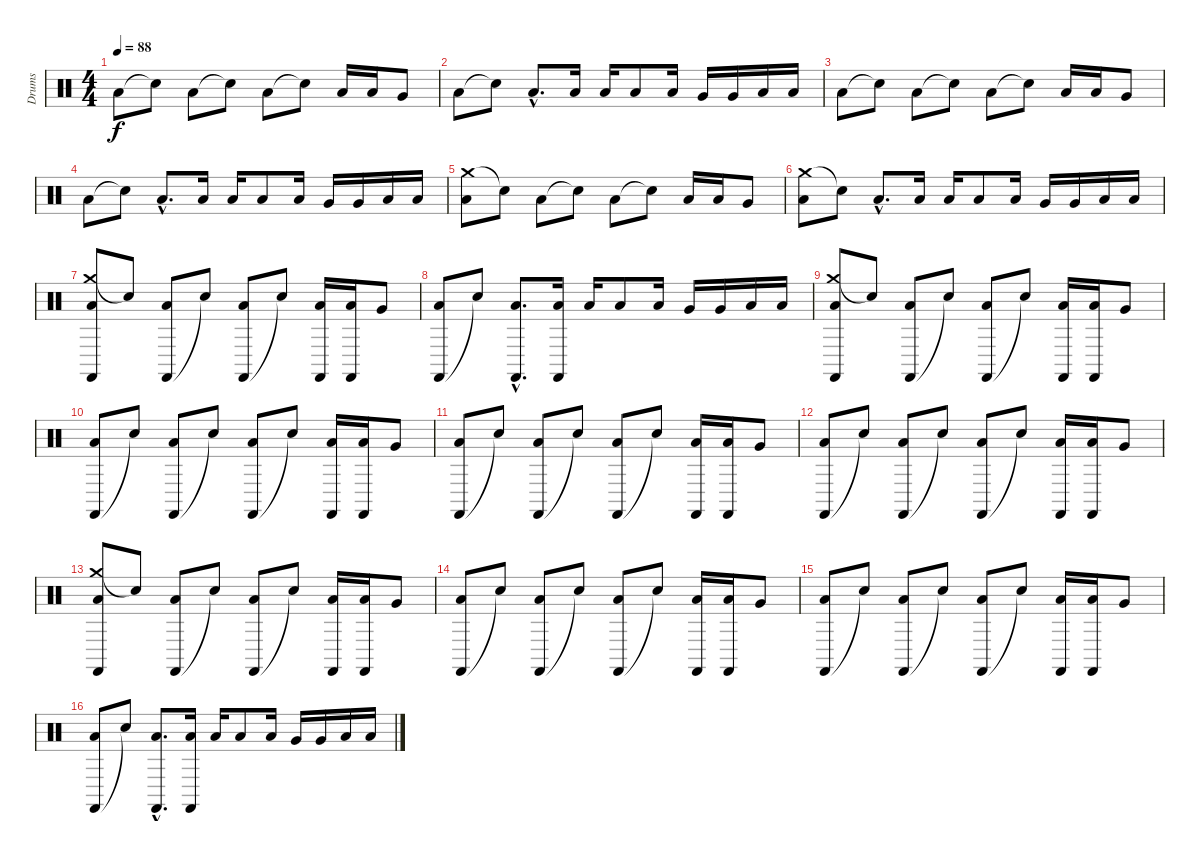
\track ("Drums" "Drums") {instrument percussion}
\staff {score}
\articulation defaults
\ts (4 4)
\tempo 88
\clef neutral
\ks c "Low Floor Tom (hit)".8{dy f} "Snare (hit)"{t}.8 "Low Floor Tom (hit)".8 "Snare (hit)"{t}.8 "Low Floor Tom (hit)".8 "Snare (hit)"{t}.8 "Low Floor Tom (hit)".16 "Low Floor Tom (hit)".16 "Very Low Tom (hit)".8
|
"Low Floor Tom (hit)".8 "Snare (hit)"{t}.8 "Low Floor Tom (hit)"{hac}.8{d} "Low Floor Tom (hit)".16 "Low Tom (hit)".16 "Low Tom (hit)".8 "Low Tom (hit)".16 "Very Low Tom (hit)".16 "Very Low Tom (hit)".16 "Low Floor Tom (hit)".16 "Low Floor Tom (hit)".16 |
"Low Floor Tom (hit)".8 "Snare (hit)"{t}.8 "Low Floor Tom (hit)".8 "Snare (hit)"{t}.8 "Low Floor Tom (hit)".8 "Snare (hit)"{t}.8 "Low Floor Tom (hit)".16 "Low Floor Tom (hit)".16 "Very Low Tom (hit)".8 |
"Low Floor Tom (hit)".8 "Snare (hit)"{t}.8 "Low Floor Tom (hit)"{hac}.8{d} "Low Floor Tom (hit)".16 "Low Tom (hit)".16 "Low Tom (hit)".8 "Low Tom (hit)".16 "Very Low Tom (hit)".16 "Very Low Tom (hit)".16 "Low Floor Tom (hit)".16 "Low Floor Tom (hit)".16 |
("Crash medium (hit)" "Low Floor Tom (hit)").8 "Snare (hit)"{t}.8 "Low Floor Tom (hit)".8 "Snare (hit)"{t}.8 "Low Floor Tom (hit)".8 "Snare (hit)"{t}.8 "Low Floor Tom (hit)".16 "Low Floor Tom (hit)".16 "Very Low Tom (hit)".8 |
("Crash medium (hit)" "Low Floor Tom (hit)").8 "Snare (hit)"{t}.8 "Low Floor Tom (hit)"{hac}.8{d} "Low Floor Tom (hit)".16 "Low Tom (hit)".16 "Low Tom (hit)".8 "Low Tom (hit)".16 "Very Low Tom (hit)".16 "Very Low Tom (hit)".16 "Low Floor Tom (hit)".16 "Low Floor Tom (hit)".16 |
("Crash medium (hit)" "Castanets (hit)" "Low Floor Tom (hit)").8 "Snare (hit)"{t}.8 ("Castanets (hit)" "Low Floor Tom (hit)").8 "Snare (hit)"{t}.8 ("Castanets (hit)" "Low Floor Tom (hit)").8 "Snare (hit)"{t}.8 ("Castanets (hit)" "Low Floor Tom (hit)").16 ("Castanets (hit)" "Low Floor Tom (hit)").16 "Very Low Tom (hit)".8 |
("Castanets (hit)" "Low Floor Tom (hit)").8 "Snare (hit)"{t}.8 ("Castanets (hit)"{hac} "Low Floor Tom (hit)"{hac}).8{d} ("Castanets (hit)" "Low Floor Tom (hit)").16 "Low Tom (hit)".16 "Low Tom (hit)".8 "Low Tom (hit)".16 "Very Low Tom (hit)".16 "Very Low Tom (hit)".16 "Low Floor Tom (hit)".16 "Low Floor Tom (hit)".16 |
("Crash medium (hit)" "Castanets (hit)" "Low Floor Tom (hit)").8 "Snare (hit)"{t}.8 ("Castanets (hit)" "Low Floor Tom (hit)").8 "Snare (hit)"{t}.8 ("Castanets (hit)" "Low Floor Tom (hit)").8 "Snare (hit)"{t}.8 ("Castanets (hit)" "Low Floor Tom (hit)").16 ("Castanets (hit)" "Low Floor Tom (hit)").16 "Very Low Tom (hit)".8 |
("Castanets (hit)" "Low Floor Tom (hit)").8 "Snare (hit)"{t}.8 ("Castanets (hit)" "Low Floor Tom (hit)").8 "Snare (hit)"{t}.8 ("Castanets (hit)" "Low Floor Tom (hit)").8 "Snare (hit)"{t}.8 ("Castanets (hit)" "Low Floor Tom (hit)").16 ("Castanets (hit)" "Low Floor Tom (hit)").16 "Very Low Tom (hit)".8 |
("Castanets (hit)" "Low Floor Tom (hit)").8 "Snare (hit)"{t}.8 ("Castanets (hit)" "Low Floor Tom (hit)").8 "Snare (hit)"{t}.8 ("Castanets (hit)" "Low Floor Tom (hit)").8 "Snare (hit)"{t}.8 ("Castanets (hit)" "Low Floor Tom (hit)").16 ("Castanets (hit)" "Low Floor Tom (hit)").16 "Very Low Tom (hit)".8 |
("Castanets (hit)" "Low Floor Tom (hit)").8 "Snare (hit)"{t}.8 ("Castanets (hit)" "Low Floor Tom (hit)").8 "Snare (hit)"{t}.8 ("Castanets (hit)" "Low Floor Tom (hit)").8 "Snare (hit)"{t}.8 ("Castanets (hit)" "Low Floor Tom (hit)").16 ("Castanets (hit)" "Low Floor Tom (hit)").16 "Very Low Tom (hit)".8 |
("Crash medium (hit)" "Castanets (hit)" "Low Floor Tom (hit)").8 "Snare (hit)"{t}.8 ("Castanets (hit)" "Low Floor Tom (hit)").8 "Snare (hit)"{t}.8 ("Castanets (hit)" "Low Floor Tom (hit)").8 "Snare (hit)"{t}.8 ("Castanets (hit)" "Low Floor Tom (hit)").16 ("Castanets (hit)" "Low Floor Tom (hit)").16 "Very Low Tom (hit)".8 |
("Castanets (hit)" "Low Floor Tom (hit)").8 "Snare (hit)"{t}.8 ("Castanets (hit)" "Low Floor Tom (hit)").8 "Snare (hit)"{t}.8 ("Castanets (hit)" "Low Floor Tom (hit)").8 "Snare (hit)"{t}.8 ("Castanets (hit)" "Low Floor Tom (hit)").16 ("Castanets (hit)" "Low Floor Tom (hit)").16 "Very Low Tom (hit)".8 |
("Castanets (hit)" "Low Floor Tom (hit)").8 "Snare (hit)"{t}.8 ("Castanets (hit)" "Low Floor Tom (hit)").8 "Snare (hit)"{t}.8 ("Castanets (hit)" "Low Floor Tom (hit)").8 "Snare (hit)"{t}.8 ("Castanets (hit)" "Low Floor Tom (hit)").16 ("Castanets (hit)" "Low Floor Tom (hit)").16 "Very Low Tom (hit)".8 |
("Castanets (hit)" "Low Floor Tom (hit)").8 "Snare (hit)"{t}.8 ("Castanets (hit)"{hac} "Low Floor Tom (hit)"{hac}).8{d} ("Castanets (hit)" "Low Floor Tom (hit)").16 "Low Tom (hit)".16 "Low Tom (hit)".8 "Low Tom (hit)".16 "Very Low Tom (hit)".16 "Very Low Tom (hit)".16 "Low Floor Tom (hit)".16 "Low Floor Tom (hit)".16
